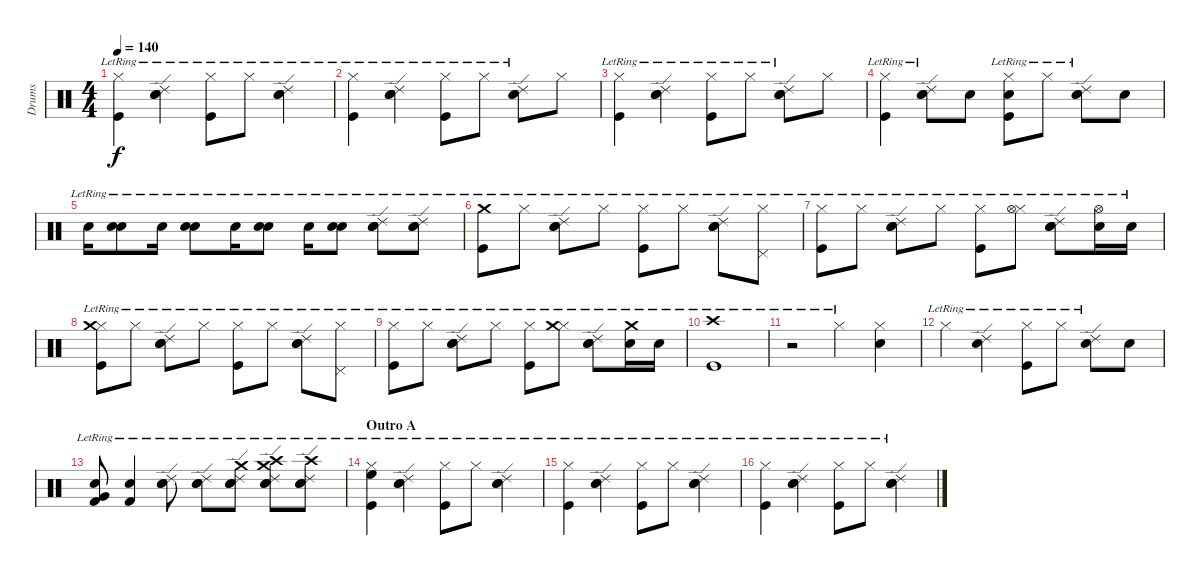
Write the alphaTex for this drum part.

\track ("Drums" "Drums") {instrument percussion}
\staff {score}
\articulation defaults
\ts (4 4)
\tempo 140
\clef neutral
\ks c
("Hi-Hat (closed)"{lr} "Kick (hit)"{lr}).4{dy f} ("Electric Snare (hit)"{lr} "Ride (edge) 2"{lr} "Snare (hit) 2"{lr}).4 ("Hi-Hat (closed)"{lr} "Kick (hit)"{lr}).8 "Hi-Hat (closed)"{lr}.8 ("Electric Snare (hit)"{lr} "Ride (edge) 2"{lr} "Snare (hit) 2"{lr}).4 |
("Hi-Hat (closed)"{lr} "Kick (hit)"{lr}).4 ("Electric Snare (hit)"{lr} "Ride (edge) 2"{lr} "Snare (hit) 2"{lr}).4 ("Hi-Hat (closed)"{lr} "Kick (hit)"{lr}).8 "Hi-Hat (closed)"{lr}.8 ("Electric Snare (hit)"{lr} "Ride (edge) 2"{lr} "Snare (hit) 2"{lr}).8 "Hi-Hat (closed)".8 |
("Hi-Hat (closed)"{lr} "Kick (hit)"{lr}).4 ("Electric Snare (hit)"{lr} "Ride (edge) 2"{lr} "Snare (hit) 2"{lr}).4 ("Hi-Hat (closed)"{lr} "Kick (hit)"{lr}).8 "Hi-Hat (closed)"{lr}.8 ("Electric Snare (hit)"{lr} "Ride (edge) 2"{lr} "Snare (hit) 2"{lr}).8 "Hi-Hat (closed)".8 |
("Hi-Hat (closed)"{lr} "Kick (hit)"{lr}).4 ("Electric Snare (hit)"{lr} "Ride (edge) 2"{lr} "Snare (hit) 2"{lr}).8 "Snare (hit) 2".8 ("Hi-Hat (closed)"{lr} "Electric Snare (hit)" "Kick (hit)"{lr}).8 "Hi-Hat (closed)"{lr}.8 ("Electric Snare (hit)"{lr} "Ride (edge) 2"{lr} "Snare (hit) 2"{lr}).8 "Snare (hit) 2".8 |
"Snare (hit) 2"{lr}.16 ("Snare (hit) 2"{lr} "Electric Snare (hit)"{lr}).8 "Snare (hit) 2"{lr}.16 ("Snare (hit) 2"{lr} "Electric Snare (hit)"{lr}).8 "Snare (hit) 2"{lr}.16 ("Snare (hit) 2"{lr} "Electric Snare (hit)"{lr}).8 "Snare (hit) 2"{lr}.16 ("Snare (hit) 2"{lr} "Electric Snare (hit)"{lr}).8 ("Snare (hit) 2"{lr} "Electric Snare (hit)"{lr} "Ride (edge) 2"{lr}).8 ("Snare (hit) 2"{lr} "Electric Snare (hit)"{lr} "Ride (edge) 2"{lr}).8 |
("Crash medium (hit)"{lr} "Kick (hit)"{lr}).8 "Hi-Hat (closed)"{lr}.8 ("Electric Snare (hit)"{lr} "Ride (edge) 2"{lr} "Snare (hit) 2"{lr}).8 "Hi-Hat (closed)"{lr}.8 ("Hi-Hat (closed)"{lr} "Kick (hit)"{lr}).8 "Hi-Hat (closed)"{lr}.8 ("Electric Snare (hit)"{lr} "Ride (edge) 2"{lr} "Snare (hit) 2"{lr}).8 ("Hi-Hat (closed)"{lr} "Pedal Hi-Hat (hit)"{lr}).8 |
("Hi-Hat (closed)"{lr} "Kick (hit)"{lr}).8 "Hi-Hat (closed)"{lr}.8 ("Electric Snare (hit)"{lr} "Ride (edge) 2"{lr} "Snare (hit) 2"{lr}).8 "Hi-Hat (closed)"{lr}.8 ("Hi-Hat (closed)"{lr} "Kick (hit)"{lr}).8 ("Hi-Hat (closed)"{lr} "Hi-Hat (open)"{lr}).8 ("Electric Snare (hit)"{lr} "Ride (edge) 2"{lr} "Snare (hit) 2"{lr}).8 ("Hi-Hat (open)"{lr} "Snare (hit) 2"{lr}).16 "Snare (hit) 2"{lr}.16 |
("Hi-Hat (closed)"{lr} "Crash medium (hit)"{lr} "Kick (hit)"{lr}).8 "Hi-Hat (closed)"{lr}.8 ("Electric Snare (hit)"{lr} "Ride (edge) 2"{lr} "Snare (hit) 2"{lr}).8 "Hi-Hat (closed)"{lr}.8 ("Hi-Hat (closed)"{lr} "Kick (hit)"{lr}).8 "Hi-Hat (closed)"{lr}.8 ("Electric Snare (hit)"{lr} "Ride (edge) 2"{lr} "Snare (hit) 2"{lr}).8 ("Hi-Hat (closed)"{lr} "Pedal Hi-Hat (hit)"{lr}).8 |
("Hi-Hat (closed)"{lr} "Kick (hit)"{lr}).8 "Hi-Hat (closed)"{lr}.8 ("Electric Snare (hit)"{lr} "Ride (edge) 2"{lr} "Snare (hit) 2"{lr}).8 "Hi-Hat (closed)"{lr}.8 ("Hi-Hat (closed)"{lr} "Kick (hit)"{lr}).8 ("Hi-Hat (closed)"{lr} "Crash medium (hit)"{lr}).8 ("Electric Snare (hit)"{lr} "Ride (edge) 2"{lr} "Snare (hit) 2"{lr}).8 ("Crash medium (hit)" "Snare (hit) 2"{lr}).16 "Snare (hit) 2"{lr}.16 |
("Crash high (hit)" "Kick (hit)"{lr}).1 |
r.2 "Hi-Hat (closed)"{lr}.4 ("Hi-Hat (closed)" "Snare (hit) 2").4 |
"Hi-Hat (closed)"{lr}.4 ("Ride (edge) 2"{lr} "Snare (hit) 2").4 ("Hi-Hat (closed)"{lr} "Kick (hit)"{lr}).8 "Hi-Hat (closed)"{lr}.8 ("Ride (edge) 2"{lr} "Snare (hit) 2").8 "Snare (hit) 2".8 |
("Kick (hit) 2"{lr} "Very Low Tom (hit)" "Electric Snare (hit)"{lr}).8 ("Kick (hit) 2"{lr} "Electric Snare (hit)"{lr}).4 ("Snare (hit) 2"{lr} "Electric Snare (hit)"{lr} "Ride (edge) 2"{lr}).8 ("Snare (hit) 2"{lr} "Electric Snare (hit)"{lr} "Ride (edge) 2"{lr}).8 ("Snare (hit) 2"{lr} "Electric Snare (hit)"{lr} "Ride (edge) 2"{lr} "Crash medium (hit)").8 ("Snare (hit) 2"{lr} "Electric Snare (hit)"{lr} "Ride (edge) 2"{lr} "Crash high (hit)"{lr} "Crash medium (hit)").8 ("Snare (hit) 2"{lr} "Electric Snare (hit)"{lr} "Ride (edge) 2"{lr} "Crash high (hit)"{lr}).8 |
\section ("" "Outro A")
("Hi-Hat (closed)"{lr} "Kick (hit)"{lr} "High Floor Tom (hit)"{lr}).4 ("Electric Snare (hit)"{lr} "Ride (edge) 2"{lr} "Snare (hit) 2"{lr}).4 ("Hi-Hat (closed)"{lr} "Kick (hit)"{lr}).8 "Hi-Hat (closed)"{lr}.8 ("Electric Snare (hit)"{lr} "Ride (edge) 2"{lr} "Snare (hit) 2"{lr}).4 |
("Hi-Hat (closed)"{lr} "Kick (hit)"{lr}).4 ("Electric Snare (hit)"{lr} "Ride (edge) 2"{lr} "Snare (hit) 2"{lr}).4 ("Hi-Hat (closed)"{lr} "Kick (hit)"{lr}).8 "Hi-Hat (closed)"{lr}.8 ("Electric Snare (hit)"{lr} "Ride (edge) 2"{lr} "Snare (hit) 2"{lr}).4 |
("Hi-Hat (closed)"{lr} "Kick (hit)"{lr}).4 ("Electric Snare (hit)"{lr} "Ride (edge) 2"{lr} "Snare (hit) 2"{lr}).4 ("Hi-Hat (closed)"{lr} "Kick (hit)"{lr}).8 "Hi-Hat (closed)"{lr}.8 ("Electric Snare (hit)"{lr} "Ride (edge) 2"{lr} "Snare (hit) 2"{lr}).4
